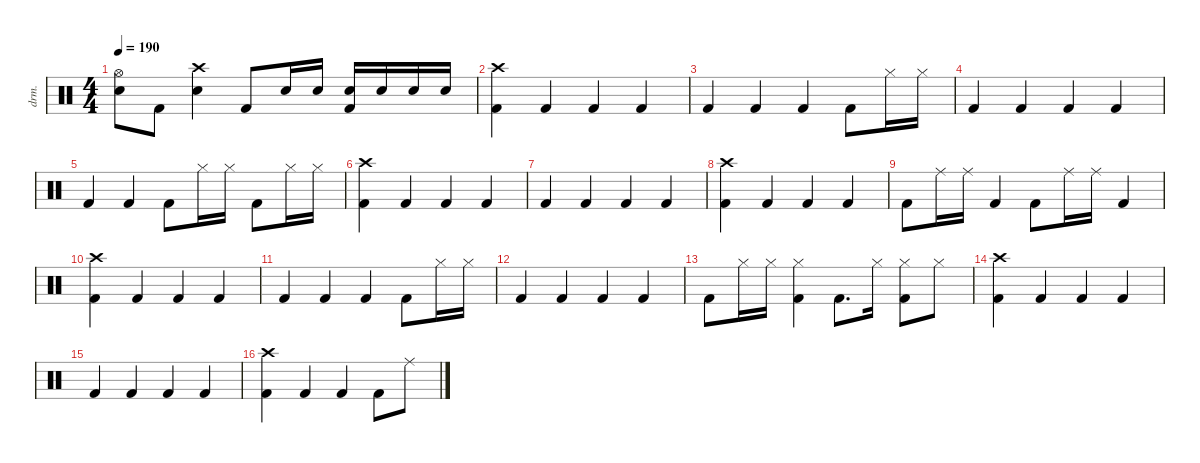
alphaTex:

\defaultSystemsLayout 4
\hideDynamics
\bracketExtendMode nobrackets
\track ("Drumkit" "drm.") {instrument percussion}
\staff {score}
\articulation defaults
\ts (4 4)
\tempo 190
\clef neutral
\ks c
("Snare (hit) 2" "Hi-Hat (open)").8{dy mf} "Kick (hit) 2".8 ("Snare (hit) 2" "Crash high (hit)").4 "Kick (hit) 2".8 "Snare (hit) 2".16 "Snare (hit) 2".16 ("Kick (hit) 2" "Snare (hit) 2").16 "Snare (hit) 2".16 "Snare (hit) 2".16 "Snare (hit) 2".16 |
("Kick (hit) 2" "Crash high (hit)").4 "Kick (hit) 2".4 "Kick (hit) 2".4 "Kick (hit) 2".4 |
"Kick (hit) 2".4 "Kick (hit) 2".4 "Kick (hit) 2".4 "Kick (hit) 2".8 "Hi-Hat (closed)".16 "Hi-Hat (closed)".16 |
"Kick (hit) 2".4 "Kick (hit) 2".4 "Kick (hit) 2".4 "Kick (hit) 2".4 |
"Kick (hit) 2".4 "Kick (hit) 2".4 "Kick (hit) 2".8 "Hi-Hat (closed)".16 "Hi-Hat (closed)".16 "Kick (hit) 2".8 "Hi-Hat (closed)".16 "Hi-Hat (closed)".16 |
("Kick (hit) 2" "Crash high (hit)").4 "Kick (hit) 2".4 "Kick (hit) 2".4 "Kick (hit) 2".4 |
"Kick (hit) 2".4 "Kick (hit) 2".4 "Kick (hit) 2".4 "Kick (hit) 2".4 |
("Kick (hit) 2" "Crash high (hit)").4 "Kick (hit) 2".4 "Kick (hit) 2".4 "Kick (hit) 2".4 |
"Kick (hit) 2".8 "Ride (middle)".16 "Ride (middle)".16 "Kick (hit) 2".4 "Kick (hit) 2".8 "Ride (middle)".16 "Ride (middle)".16 "Kick (hit) 2".4 |
("Kick (hit) 2" "Crash high (hit)").4 "Kick (hit) 2".4 "Kick (hit) 2".4 "Kick (hit) 2".4 |
"Kick (hit) 2".4 "Kick (hit) 2".4 "Kick (hit) 2".4 "Kick (hit) 2".8 "Hi-Hat (closed)".16 "Hi-Hat (closed)".16 |
"Kick (hit) 2".4 "Kick (hit) 2".4 "Kick (hit) 2".4 "Kick (hit) 2".4 |
"Kick (hit) 2".8 "Hi-Hat (closed)".16 "Hi-Hat (closed)".16 ("Kick (hit) 2" "Hi-Hat (closed)").4 "Kick (hit) 2".8{d} "Hi-Hat (closed)".16 ("Kick (hit) 2" "Hi-Hat (closed)").8 "Hi-Hat (closed)".8 |
("Kick (hit) 2" "Crash high (hit)").4 "Kick (hit) 2".4 "Kick (hit) 2".4 "Kick (hit) 2".4 |
"Kick (hit) 2".4 "Kick (hit) 2".4 "Kick (hit) 2".4 "Kick (hit) 2".4 |
("Kick (hit) 2" "Crash high (hit)").4 "Kick (hit) 2".4 "Kick (hit) 2".4 "Kick (hit) 2".8 "Ride (middle)".8
